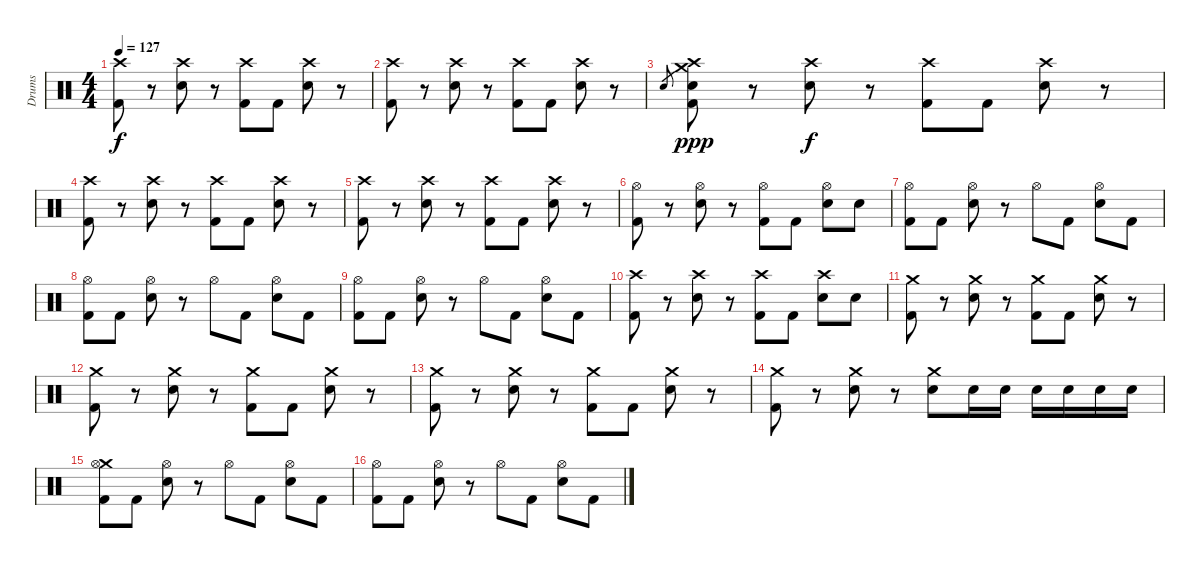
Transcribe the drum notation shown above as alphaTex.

\track ("Drums" "Drums") {instrument percussion}
\staff {score}
\articulation defaults
\ts (4 4)
\tempo 127
\clef neutral
\ks c
("Crash high (hit)" "Kick (hit) 2").8{dy f} r.8 ("Crash high (hit)" "Electric Snare (hit)").8 r.8 ("Crash high (hit)" "Kick (hit) 2").8 "Kick (hit) 2".8 ("Crash high (hit)" "Electric Snare (hit)").8 r.8 |
("Crash high (hit)" "Kick (hit) 2").8 r.8 ("Crash high (hit)" "Electric Snare (hit)").8 r.8 ("Crash high (hit)" "Kick (hit) 2").8 "Kick (hit) 2".8 ("Crash high (hit)" "Electric Snare (hit)").8 r.8 |
"Electric Snare (hit)".8{gr} ("Crash medium (hit)" "Crash high (hit)" "Electric Snare (hit)" "Kick (hit) 2").8{dy ppp} r.8 ("Crash high (hit)" "Electric Snare (hit)").8{dy f} r.8 ("Crash high (hit)" "Kick (hit) 2").8 "Kick (hit) 2".8 ("Crash high (hit)" "Electric Snare (hit)").8 r.8 |
("Crash high (hit)" "Kick (hit) 2").8 r.8 ("Crash high (hit)" "Electric Snare (hit)").8 r.8 ("Crash high (hit)" "Kick (hit) 2").8 "Kick (hit) 2".8 ("Crash high (hit)" "Electric Snare (hit)").8 r.8 |
("Crash high (hit)" "Kick (hit) 2").8 r.8 ("Crash high (hit)" "Electric Snare (hit)").8 r.8 ("Crash high (hit)" "Kick (hit) 2").8 "Kick (hit) 2".8 ("Crash high (hit)" "Electric Snare (hit)").8 r.8 |
("Hi-Hat (open)" "Kick (hit) 2").8 r.8 ("Hi-Hat (open)" "Electric Snare (hit)").8 r.8 ("Hi-Hat (open)" "Kick (hit) 2").8 "Kick (hit) 2".8 ("Hi-Hat (open)" "Electric Snare (hit)").8 "Electric Snare (hit)".8 |
("Hi-Hat (open)" "Kick (hit) 2").8 "Kick (hit) 2".8 ("Hi-Hat (open)" "Electric Snare (hit)").8 r.8 "Hi-Hat (open)".8 "Kick (hit) 2".8 ("Hi-Hat (open)" "Electric Snare (hit)").8 "Kick (hit) 2".8 |
("Hi-Hat (open)" "Kick (hit) 2").8 "Kick (hit) 2".8 ("Hi-Hat (open)" "Electric Snare (hit)").8 r.8 "Hi-Hat (open)".8 "Kick (hit) 2".8 ("Hi-Hat (open)" "Electric Snare (hit)").8 "Kick (hit) 2".8 |
("Hi-Hat (open)" "Kick (hit) 2").8 "Kick (hit) 2".8 ("Hi-Hat (open)" "Electric Snare (hit)").8 r.8 "Hi-Hat (open)".8 "Kick (hit) 2".8 ("Hi-Hat (open)" "Electric Snare (hit)").8 "Kick (hit) 2".8 |
("Crash high (hit)" "Kick (hit) 2").8 r.8 ("Crash high (hit)" "Electric Snare (hit)").8 r.8 ("Crash high (hit)" "Kick (hit) 2").8 "Kick (hit) 2".8 ("Crash high (hit)" "Electric Snare (hit)").8 "Electric Snare (hit)".8 |
("Crash medium (hit)" "Kick (hit) 2").8{volume 3} r.8 ("Crash medium (hit)" "Electric Snare (hit)").8 r.8 ("Crash medium (hit)" "Kick (hit) 2").8 "Kick (hit) 2".8 ("Crash medium (hit)" "Electric Snare (hit)").8 r.8 |
("Crash medium (hit)" "Kick (hit) 2").8 r.8 ("Crash medium (hit)" "Electric Snare (hit)").8 r.8 ("Crash medium (hit)" "Kick (hit) 2").8 "Kick (hit) 2".8 ("Crash medium (hit)" "Electric Snare (hit)").8 r.8 |
("Crash medium (hit)" "Kick (hit) 2").8 r.8 ("Crash medium (hit)" "Electric Snare (hit)").8 r.8 ("Crash medium (hit)" "Kick (hit) 2").8 "Kick (hit) 2".8 ("Crash medium (hit)" "Electric Snare (hit)").8 r.8 |
("Crash medium (hit)" "Kick (hit) 2").8 r.8 ("Crash medium (hit)" "Electric Snare (hit)").8 r.8 ("Crash medium (hit)" "Electric Snare (hit)").8 "Electric Snare (hit)".16 "Electric Snare (hit)".16 "Electric Snare (hit)".16 "Electric Snare (hit)".16 "Electric Snare (hit)".16 "Electric Snare (hit)".16 |
("Crash medium (hit)" "Hi-Hat (open)" "Kick (hit) 2").8{volume 1} "Kick (hit) 2".8 ("Hi-Hat (open)" "Electric Snare (hit)").8 r.8 "Hi-Hat (open)".8 "Kick (hit) 2".8 ("Hi-Hat (open)" "Electric Snare (hit)").8 "Kick (hit) 2".8 |
("Hi-Hat (open)" "Kick (hit) 2").8 "Kick (hit) 2".8 ("Hi-Hat (open)" "Electric Snare (hit)").8 r.8 "Hi-Hat (open)".8 "Kick (hit) 2".8 ("Hi-Hat (open)" "Electric Snare (hit)").8 "Kick (hit) 2".8
